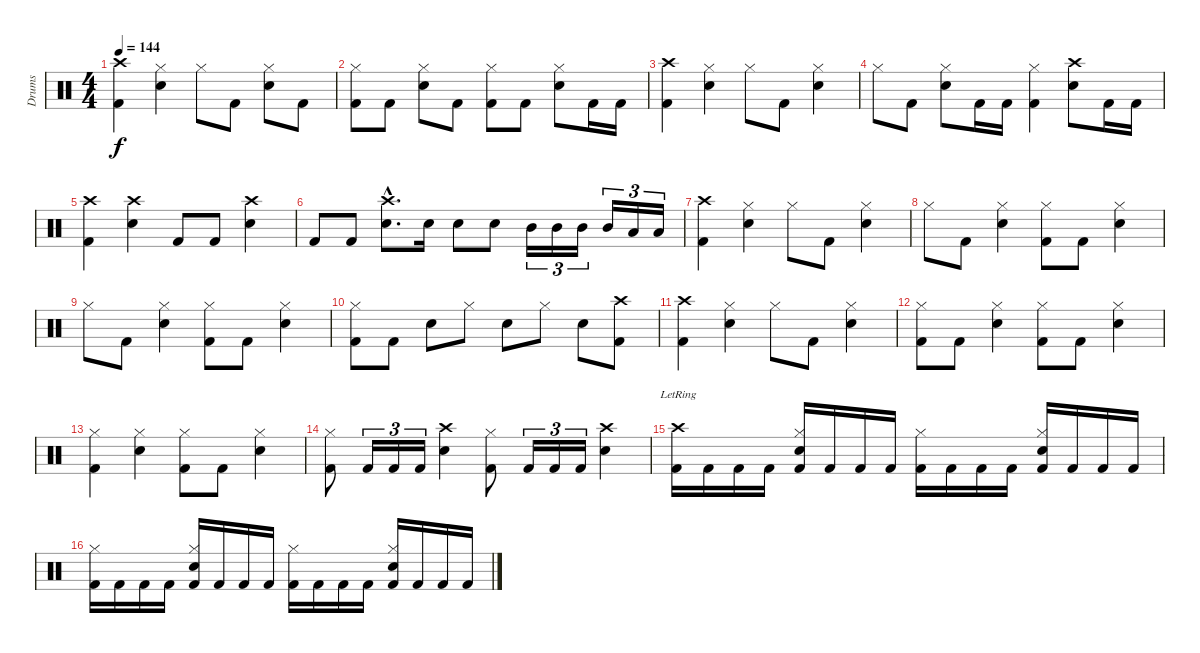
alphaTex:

\track ("Drums" "Drums") {instrument percussion}
\staff {score}
\articulation defaults
\ts (4 4)
\tempo 144
\clef neutral
\ks c
("Crash high (hit)" "Kick (hit) 2").4{dy f} ("Hi-Hat (closed)" "Snare (hit) 2").4 "Hi-Hat (closed)".8 "Kick (hit) 2".8 ("Hi-Hat (closed)" "Snare (hit) 2").8 "Kick (hit) 2".8 |
("Hi-Hat (closed)" "Kick (hit) 2").8 "Kick (hit) 2".8 ("Hi-Hat (closed)" "Snare (hit) 2").8 "Kick (hit) 2".8 ("Hi-Hat (closed)" "Kick (hit) 2").8 "Kick (hit) 2".8 ("Hi-Hat (closed)" "Snare (hit) 2").8 "Kick (hit) 2".16 "Kick (hit) 2".16 |
("Crash high (hit)" "Kick (hit) 2").4 ("Hi-Hat (closed)" "Snare (hit) 2").4 "Hi-Hat (closed)".8 "Kick (hit) 2".8 ("Hi-Hat (closed)" "Snare (hit) 2").4 |
"Hi-Hat (closed)".8 "Kick (hit) 2".8 ("Hi-Hat (closed)" "Snare (hit) 2").8 "Kick (hit) 2".16 "Kick (hit) 2".16 ("Hi-Hat (closed)" "Kick (hit) 2").4 ("Crash high (hit)" "Snare (hit) 2").8 "Kick (hit) 2".16 "Kick (hit) 2".16 |
("Crash high (hit)" "Kick (hit) 2").4 ("Crash high (hit)" "Snare (hit) 2").4 "Kick (hit) 2".8 "Kick (hit) 2".8 ("Crash high (hit)" "Snare (hit) 2").4 |
"Kick (hit) 2".8 "Kick (hit) 2".8 ("Crash high (hit)"{hac} "Snare (hit) 2"{hac}).8{d} "Snare (hit) 2".16 "Snare (hit) 2".8 "Snare (hit) 2".8 "Mid Tom (hit)".16{tu (3 2)} "Mid Tom (hit)".16{tu (3 2)} "Mid Tom (hit)".16{tu (3 2)} "Mid Tom (hit)".16{tu (3 2)} "Low Tom (hit)".16{tu (3 2)} "Low Tom (hit)".16{tu (3 2)} |
("Crash high (hit)" "Kick (hit) 2").4 ("Hi-Hat (closed)" "Snare (hit) 2").4 "Hi-Hat (closed)".8 "Kick (hit) 2".8 ("Hi-Hat (closed)" "Snare (hit) 2").4 |
"Hi-Hat (closed)".8 "Kick (hit) 2".8 ("Hi-Hat (closed)" "Snare (hit) 2").4 ("Hi-Hat (closed)" "Kick (hit) 2").8 "Kick (hit) 2".8 ("Hi-Hat (closed)" "Snare (hit) 2").4 |
"Hi-Hat (closed)".8 "Kick (hit) 2".8 ("Hi-Hat (closed)" "Snare (hit) 2").4 ("Hi-Hat (closed)" "Kick (hit) 2").8 "Kick (hit) 2".8 ("Hi-Hat (closed)" "Snare (hit) 2").4 |
("Hi-Hat (closed)" "Kick (hit) 2").8 "Kick (hit) 2".8 "Snare (hit) 2".8 "Hi-Hat (closed)".8 "Snare (hit) 2".8 "Hi-Hat (closed)".8 "Snare (hit) 2".8 ("Crash high (hit)" "Kick (hit) 2").8 |
("Crash high (hit)" "Kick (hit) 2").4 ("Hi-Hat (closed)" "Snare (hit) 2").4 "Hi-Hat (closed)".8 "Kick (hit) 2".8 ("Hi-Hat (closed)" "Snare (hit) 2").4 |
("Hi-Hat (closed)" "Kick (hit) 2").8 "Kick (hit) 2".8 ("Hi-Hat (closed)" "Snare (hit) 2").4 ("Hi-Hat (closed)" "Kick (hit) 2").8 "Kick (hit) 2".8 ("Hi-Hat (closed)" "Snare (hit) 2").4 |
("Hi-Hat (closed)" "Kick (hit) 2").4 ("Hi-Hat (closed)" "Snare (hit) 2").4 ("Hi-Hat (closed)" "Kick (hit) 2").8 "Kick (hit) 2".8 ("Hi-Hat (closed)" "Snare (hit) 2").4 |
("Hi-Hat (closed)" "Kick (hit) 2").8 "Kick (hit) 2".16{tu (3 2)} "Kick (hit) 2".16{tu (3 2)} "Kick (hit) 2".16{tu (3 2)} ("Crash high (hit)" "Snare (hit) 2").4 ("Hi-Hat (closed)" "Kick (hit) 2").8 "Kick (hit) 2".16{tu (3 2)} "Kick (hit) 2".16{tu (3 2)} "Kick (hit) 2".16{tu (3 2)} ("Crash high (hit)" "Snare (hit) 2").4 |
("Crash high (hit)"{lr} "Kick (hit) 2").16 "Kick (hit) 2".16 "Kick (hit) 2".16 "Kick (hit) 2".16 ("Hi-Hat (closed)" "Snare (hit) 2" "Kick (hit) 2").16 "Kick (hit) 2".16 "Kick (hit) 2".16 "Kick (hit) 2".16 ("Hi-Hat (closed)" "Kick (hit) 2").16 "Kick (hit) 2".16 "Kick (hit) 2".16 "Kick (hit) 2".16 ("Hi-Hat (closed)" "Snare (hit) 2" "Kick (hit) 2").16 "Kick (hit) 2".16 "Kick (hit) 2".16 "Kick (hit) 2".16 |
("Hi-Hat (closed)" "Kick (hit) 2").16 "Kick (hit) 2".16 "Kick (hit) 2".16 "Kick (hit) 2".16 ("Hi-Hat (closed)" "Snare (hit) 2" "Kick (hit) 2").16 "Kick (hit) 2".16 "Kick (hit) 2".16 "Kick (hit) 2".16 ("Hi-Hat (closed)" "Kick (hit) 2").16 "Kick (hit) 2".16 "Kick (hit) 2".16 "Kick (hit) 2".16 ("Hi-Hat (closed)" "Snare (hit) 2" "Kick (hit) 2").16 "Kick (hit) 2".16 "Kick (hit) 2".16 "Kick (hit) 2".16
